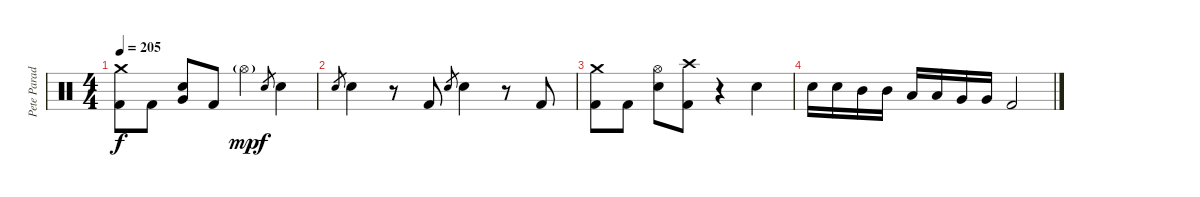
\track ("Pete Parada - Drums" "Pete Parad") {instrument percussion}
\staff {score}
\articulation defaults
\ts (4 4)
\tempo 205
\clef neutral
\ks c
("Crash medium (hit)" "Kick (hit) 2").8{dy f} "Kick (hit) 2".8 ("Very Low Tom (hit)" "Electric Snare (hit)").8 "Kick (hit) 2".8 "Hi-Hat (open)"{g}.4{dy mp} "Electric Snare (hit)".8{gr dy f} "Electric Snare (hit)".4 |
"Electric Snare (hit)".8{gr} "Electric Snare (hit)".4 r.8 "Kick (hit) 2".8 "Electric Snare (hit)".8{gr} "Electric Snare (hit)".4 r.8 "Kick (hit) 2".8 |
("Crash medium (hit)" "Kick (hit) 2").8 "Kick (hit) 2".8 ("Hi-Hat (open)" "Electric Snare (hit)").8 ("Crash high (hit)" "Kick (hit) 2").8 r.4 "Electric Snare (hit)".4 |
"Electric Snare (hit)".16 "Electric Snare (hit)".16 "Mid Tom (hit)".16 "Mid Tom (hit)".16 "Low Tom (hit)".16 "Low Tom (hit)".16 "Very Low Tom (hit)".16 "Very Low Tom (hit)".16 "Kick (hit) 2".2
